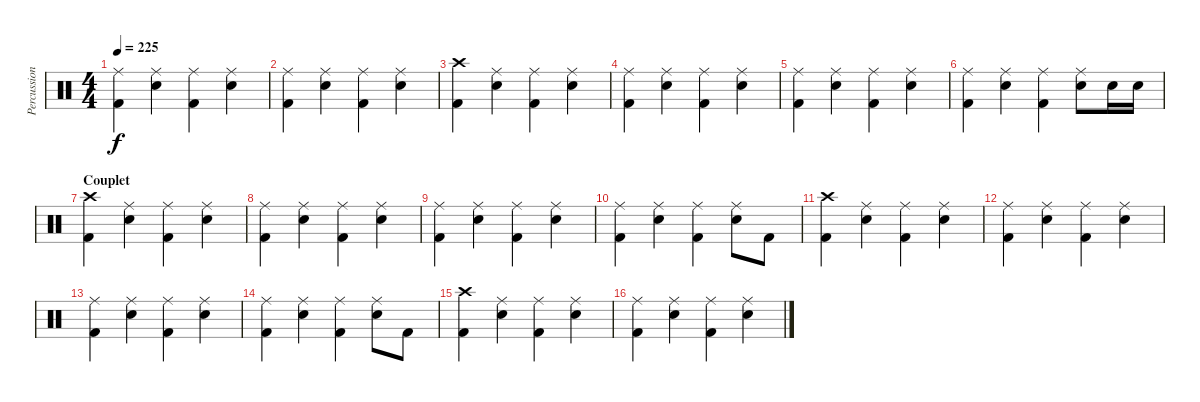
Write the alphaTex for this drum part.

\track ("Percussions" "Percussion") {instrument percussion}
\staff {score}
\articulation defaults
\ts (4 4)
\tempo 225
\clef neutral
\ks c
("Ride (middle)" "Kick (hit) 2").4{dy f} ("Ride (middle)" "Snare (hit) 2").4 ("Ride (middle)" "Kick (hit) 2").4 ("Ride (middle)" "Snare (hit) 2").4 |
("Ride (middle)" "Kick (hit) 2").4 ("Ride (middle)" "Snare (hit) 2").4 ("Ride (middle)" "Kick (hit) 2").4 ("Ride (middle)" "Snare (hit) 2").4 |
("Crash high (hit)" "Kick (hit) 2").4 ("Ride (middle)" "Snare (hit) 2").4 ("Ride (middle)" "Kick (hit) 2").4 ("Ride (middle)" "Snare (hit) 2").4 |
("Ride (middle)" "Kick (hit) 2").4 ("Ride (middle)" "Snare (hit) 2").4 ("Ride (middle)" "Kick (hit) 2").4 ("Ride (middle)" "Snare (hit) 2").4 |
("Ride (middle)" "Kick (hit) 2").4 ("Ride (middle)" "Snare (hit) 2").4 ("Ride (middle)" "Kick (hit) 2").4 ("Ride (middle)" "Snare (hit) 2").4 |
("Ride (middle)" "Kick (hit) 2").4 ("Ride (middle)" "Snare (hit) 2").4 ("Ride (middle)" "Kick (hit) 2").4 ("Ride (middle)" "Snare (hit) 2").8 "Snare (hit) 2".16 "Snare (hit) 2".16 |
\section ("" "Couplet")
("Crash high (hit)" "Kick (hit) 2").4 ("Ride (middle)" "Snare (hit) 2").4 ("Ride (middle)" "Kick (hit) 2").4 ("Ride (middle)" "Snare (hit) 2").4 |
("Ride (middle)" "Kick (hit) 2").4 ("Ride (middle)" "Snare (hit) 2").4 ("Ride (middle)" "Kick (hit) 2").4 ("Ride (middle)" "Snare (hit) 2").4 |
("Ride (middle)" "Kick (hit) 2").4 ("Ride (middle)" "Snare (hit) 2").4 ("Ride (middle)" "Kick (hit) 2").4 ("Ride (middle)" "Snare (hit) 2").4 |
("Ride (middle)" "Kick (hit) 2").4 ("Ride (middle)" "Snare (hit) 2").4 ("Ride (middle)" "Kick (hit) 2").4 ("Ride (middle)" "Snare (hit) 2").8 "Kick (hit) 2".8 |
("Crash high (hit)" "Kick (hit) 2").4 ("Ride (middle)" "Snare (hit) 2").4 ("Ride (middle)" "Kick (hit) 2").4 ("Ride (middle)" "Snare (hit) 2").4 |
("Ride (middle)" "Kick (hit) 2").4 ("Ride (middle)" "Snare (hit) 2").4 ("Ride (middle)" "Kick (hit) 2").4 ("Ride (middle)" "Snare (hit) 2").4 |
("Ride (middle)" "Kick (hit) 2").4 ("Ride (middle)" "Snare (hit) 2").4 ("Ride (middle)" "Kick (hit) 2").4 ("Ride (middle)" "Snare (hit) 2").4 |
("Ride (middle)" "Kick (hit) 2").4 ("Ride (middle)" "Snare (hit) 2").4 ("Ride (middle)" "Kick (hit) 2").4 ("Ride (middle)" "Snare (hit) 2").8 "Kick (hit) 2".8 |
("Crash high (hit)" "Kick (hit) 2").4 ("Ride (middle)" "Snare (hit) 2").4 ("Ride (middle)" "Kick (hit) 2").4 ("Ride (middle)" "Snare (hit) 2").4 |
("Ride (middle)" "Kick (hit) 2").4 ("Ride (middle)" "Snare (hit) 2").4 ("Ride (middle)" "Kick (hit) 2").4 ("Ride (middle)" "Snare (hit) 2").4
